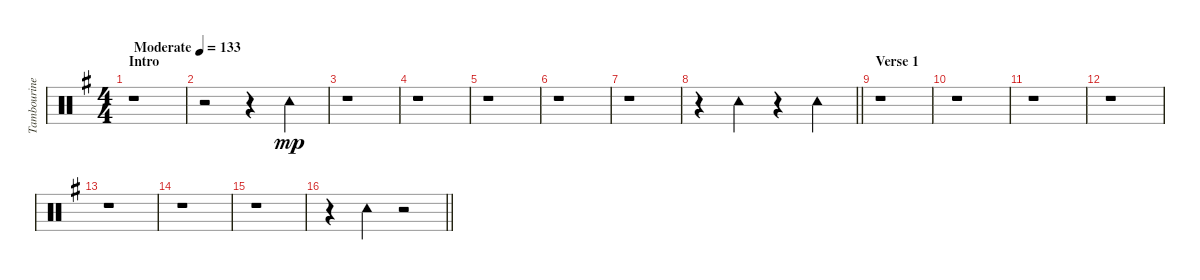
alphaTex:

\track ("Tambourine/Claps" "Tambourine") {instrument percussion}
\staff {score}
\articulation defaults
\ts (4 4)
\section ("" "Intro")
\tempo (133 "Moderate")
\clef neutral
\ks g
r.1{dy mp} |
r.2 r.4 "Tambourine (hit)".4 |
r.1 |
r.1 |
r.1 |
r.1 |
r.1 |
\barLineRight lightlight
r.4 "Tambourine (hit)".4 r.4 "Tambourine (hit)".4 |
\section ("" "Verse 1")
r.1 |
r.1 |
r.1 |
r.1 |
r.1 |
r.1 |
r.1 |
\barLineRight lightlight
r.4 "Tambourine (hit)".4 r.2
